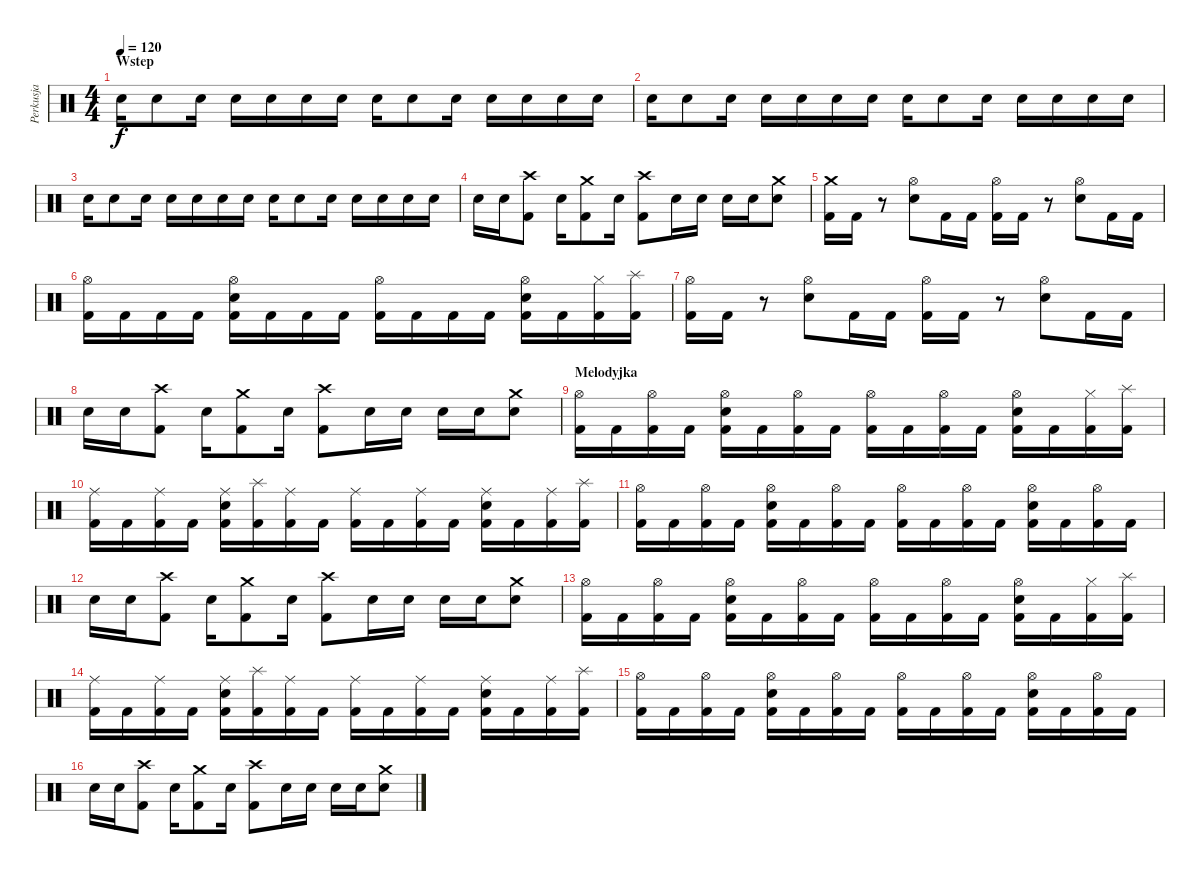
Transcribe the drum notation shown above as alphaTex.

\track ("Perkusja" "Perkusja") {instrument percussion}
\staff {score}
\articulation defaults
\ts (4 4)
\section ("" "Wstep")
\tempo 120
\clef neutral
\ks c "Snare (hit) 2".16{dy f} "Snare (hit) 2".8 "Snare (hit) 2".16 "Snare (hit) 2".16 "Snare (hit) 2".16 "Snare (hit) 2".16 "Snare (hit) 2".16 "Snare (hit) 2".16 "Snare (hit) 2".8 "Snare (hit) 2".16 "Snare (hit) 2".16 "Snare (hit) 2".16 "Snare (hit) 2".16 "Snare (hit) 2".16
|
"Snare (hit) 2".16 "Snare (hit) 2".8 "Snare (hit) 2".16 "Snare (hit) 2".16 "Snare (hit) 2".16 "Snare (hit) 2".16 "Snare (hit) 2".16 "Snare (hit) 2".16 "Snare (hit) 2".8 "Snare (hit) 2".16 "Snare (hit) 2".16 "Snare (hit) 2".16 "Snare (hit) 2".16 "Snare (hit) 2".16 |
"Snare (hit) 2".16 "Snare (hit) 2".8 "Snare (hit) 2".16 "Snare (hit) 2".16 "Snare (hit) 2".16 "Snare (hit) 2".16 "Snare (hit) 2".16 "Snare (hit) 2".16 "Snare (hit) 2".8 "Snare (hit) 2".16 "Snare (hit) 2".16 "Snare (hit) 2".16 "Snare (hit) 2".16 "Snare (hit) 2".16 |
"Snare (hit) 2".16 "Snare (hit) 2".16 ("Crash high (hit)" "Kick (hit) 2").8 "Snare (hit) 2".16 ("Crash medium (hit)" "Kick (hit) 2").8 "Snare (hit) 2".16 ("Crash high (hit)" "Kick (hit) 2").8 "Snare (hit) 2".16 "Snare (hit) 2".16 "Snare (hit) 2".16 "Snare (hit) 2".16 ("Crash medium (hit)" "Snare (hit) 2").8 |
("Crash medium (hit)" "Kick (hit) 2").16 "Kick (hit) 2".16 r.8 ("Hi-Hat (open)" "Snare (hit) 2").8 "Kick (hit) 2".16 "Kick (hit) 2".16 ("Hi-Hat (open)" "Kick (hit) 2").16 "Kick (hit) 2".16 r.8 ("Hi-Hat (open)" "Snare (hit) 2").8 "Kick (hit) 2".16 "Kick (hit) 2".16 |
("Hi-Hat (open)" "Kick (hit) 2").16 "Kick (hit) 2".16 "Kick (hit) 2".16 "Kick (hit) 2".16 ("Hi-Hat (open)" "Snare (hit) 2" "Kick (hit) 2").16 "Kick (hit) 2".16 "Kick (hit) 2".16 "Kick (hit) 2".16 ("Hi-Hat (open)" "Kick (hit) 2").16 "Kick (hit) 2".16 "Kick (hit) 2".16 "Kick (hit) 2".16 ("Hi-Hat (open)" "Snare (hit) 2" "Kick (hit) 2").16 "Kick (hit) 2".16 ("Hi-Hat (closed)" "Kick (hit) 2").16 ("Splash (hit)" "Kick (hit) 2").16 |
("Hi-Hat (open)" "Kick (hit) 2").16 "Kick (hit) 2".16 r.8 ("Hi-Hat (open)" "Snare (hit) 2").8 "Kick (hit) 2".16 "Kick (hit) 2".16 ("Hi-Hat (open)" "Kick (hit) 2").16 "Kick (hit) 2".16 r.8 ("Hi-Hat (open)" "Snare (hit) 2").8 "Kick (hit) 2".16 "Kick (hit) 2".16 |
"Snare (hit) 2".16 "Snare (hit) 2".16 ("Crash high (hit)" "Kick (hit) 2").8 "Snare (hit) 2".16 ("Crash medium (hit)" "Kick (hit) 2").8 "Snare (hit) 2".16 ("Crash high (hit)" "Kick (hit) 2").8 "Snare (hit) 2".16 "Snare (hit) 2".16 "Snare (hit) 2".16 "Snare (hit) 2".16 ("Crash medium (hit)" "Snare (hit) 2").8 |
\section ("" "Melodyjka")
("Hi-Hat (open)" "Kick (hit) 2").16 "Kick (hit) 2".16 ("Hi-Hat (open)" "Kick (hit) 2").16 "Kick (hit) 2".16 ("Hi-Hat (open)" "Snare (hit) 2" "Kick (hit) 2").16 "Kick (hit) 2".16 ("Hi-Hat (open)" "Kick (hit) 2").16 "Kick (hit) 2".16 ("Hi-Hat (open)" "Kick (hit) 2").16 "Kick (hit) 2".16 ("Hi-Hat (open)" "Kick (hit) 2").16 "Kick (hit) 2".16 ("Hi-Hat (open)" "Snare (hit) 2" "Kick (hit) 2").16 "Kick (hit) 2".16 ("Hi-Hat (closed)" "Kick (hit) 2").16 ("Splash (hit)" "Kick (hit) 2").16 |
("Ride (middle)" "Kick (hit) 2").16 "Kick (hit) 2".16 ("Ride (middle)" "Kick (hit) 2").16 "Kick (hit) 2".16 ("Ride (middle)" "Snare (hit) 2" "Kick (hit) 2").16 ("Splash (hit)" "Kick (hit) 2").16 ("Ride (middle)" "Kick (hit) 2").16 "Kick (hit) 2".16 ("Ride (middle)" "Kick (hit) 2").16 "Kick (hit) 2".16 ("Ride (middle)" "Kick (hit) 2").16 "Kick (hit) 2".16 ("Ride (middle)" "Snare (hit) 2" "Kick (hit) 2").16 "Kick (hit) 2".16 ("Ride (middle)" "Kick (hit) 2").16 ("Splash (hit)" "Kick (hit) 2").16 |
("Hi-Hat (open)" "Kick (hit) 2").16 "Kick (hit) 2".16 ("Hi-Hat (open)" "Kick (hit) 2").16 "Kick (hit) 2".16 ("Hi-Hat (open)" "Snare (hit) 2" "Kick (hit) 2").16 "Kick (hit) 2".16 ("Hi-Hat (open)" "Kick (hit) 2").16 "Kick (hit) 2".16 ("Hi-Hat (open)" "Kick (hit) 2").16 "Kick (hit) 2".16 ("Hi-Hat (open)" "Kick (hit) 2").16 "Kick (hit) 2".16 ("Hi-Hat (open)" "Snare (hit) 2" "Kick (hit) 2").16 "Kick (hit) 2".16 ("Hi-Hat (open)" "Kick (hit) 2").16 "Kick (hit) 2".16 |
"Snare (hit) 2".16 "Snare (hit) 2".16 ("Crash high (hit)" "Kick (hit) 2").8 "Snare (hit) 2".16 ("Crash medium (hit)" "Kick (hit) 2").8 "Snare (hit) 2".16 ("Crash high (hit)" "Kick (hit) 2").8 "Snare (hit) 2".16 "Snare (hit) 2".16 "Snare (hit) 2".16 "Snare (hit) 2".16 ("Crash medium (hit)" "Snare (hit) 2").8 |
("Hi-Hat (open)" "Kick (hit) 2").16 "Kick (hit) 2".16 ("Hi-Hat (open)" "Kick (hit) 2").16 "Kick (hit) 2".16 ("Hi-Hat (open)" "Snare (hit) 2" "Kick (hit) 2").16 "Kick (hit) 2".16 ("Hi-Hat (open)" "Kick (hit) 2").16 "Kick (hit) 2".16 ("Hi-Hat (open)" "Kick (hit) 2").16 "Kick (hit) 2".16 ("Hi-Hat (open)" "Kick (hit) 2").16 "Kick (hit) 2".16 ("Hi-Hat (open)" "Snare (hit) 2" "Kick (hit) 2").16 "Kick (hit) 2".16 ("Hi-Hat (closed)" "Kick (hit) 2").16 ("Splash (hit)" "Kick (hit) 2").16 |
("Ride (middle)" "Kick (hit) 2").16 "Kick (hit) 2".16 ("Ride (middle)" "Kick (hit) 2").16 "Kick (hit) 2".16 ("Ride (middle)" "Snare (hit) 2" "Kick (hit) 2").16 ("Splash (hit)" "Kick (hit) 2").16 ("Ride (middle)" "Kick (hit) 2").16 "Kick (hit) 2".16 ("Ride (middle)" "Kick (hit) 2").16 "Kick (hit) 2".16 ("Ride (middle)" "Kick (hit) 2").16 "Kick (hit) 2".16 ("Ride (middle)" "Snare (hit) 2" "Kick (hit) 2").16 "Kick (hit) 2".16 ("Ride (middle)" "Kick (hit) 2").16 ("Splash (hit)" "Kick (hit) 2").16 |
("Hi-Hat (open)" "Kick (hit) 2").16 "Kick (hit) 2".16 ("Hi-Hat (open)" "Kick (hit) 2").16 "Kick (hit) 2".16 ("Hi-Hat (open)" "Snare (hit) 2" "Kick (hit) 2").16 "Kick (hit) 2".16 ("Hi-Hat (open)" "Kick (hit) 2").16 "Kick (hit) 2".16 ("Hi-Hat (open)" "Kick (hit) 2").16 "Kick (hit) 2".16 ("Hi-Hat (open)" "Kick (hit) 2").16 "Kick (hit) 2".16 ("Hi-Hat (open)" "Snare (hit) 2" "Kick (hit) 2").16 "Kick (hit) 2".16 ("Hi-Hat (open)" "Kick (hit) 2").16 "Kick (hit) 2".16 |
"Snare (hit) 2".16 "Snare (hit) 2".16 ("Crash high (hit)" "Kick (hit) 2").8 "Snare (hit) 2".16 ("Crash medium (hit)" "Kick (hit) 2").8 "Snare (hit) 2".16 ("Crash high (hit)" "Kick (hit) 2").8 "Snare (hit) 2".16 "Snare (hit) 2".16 "Snare (hit) 2".16 "Snare (hit) 2".16 ("Crash medium (hit)" "Snare (hit) 2").8
